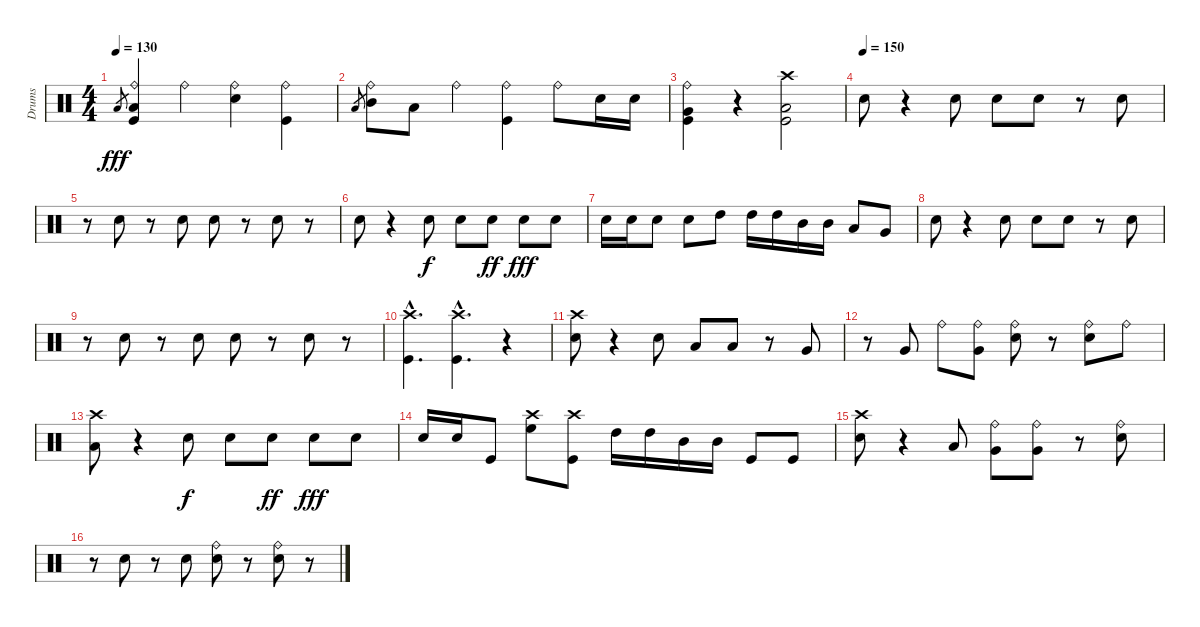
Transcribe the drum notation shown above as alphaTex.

\track ("Drums" "Drums") {instrument percussion}
\staff {score}
\articulation defaults
\ts (4 4)
\tempo 130
\clef neutral
\ks c "Low Tom (hit)".8{gr dy fff}
("Ride (bell)" "Low Tom (hit)" "Kick (hit)").4 "Ride (bell)".4 ("Ride (bell)" "Snare (hit) 2").4 ("Ride (bell)" "Kick (hit)").4 |
"Low Tom (hit)".8{gr} ("Ride (bell)" "Mid Tom (hit)").8 "Low Tom (hit)".8 "Ride (bell)".4 ("Ride (bell)" "Kick (hit)").4 "Ride (bell)".8 "Snare (hit) 2".16 "Snare (hit) 2".16 |
("Ride (bell)" "Very Low Tom (hit)" "Kick (hit)").4 r.4 ("Crash high (hit)" "Low Tom (hit)" "Kick (hit)").2 |
\tempo (150)
"Snare (hit) 2".8 r.4 "Snare (hit) 2".8 "Snare (hit) 2".8 "Snare (hit) 2".8 r.8 "Snare (hit) 2".8 |
r.8 "Snare (hit) 2".8 r.8 "Snare (hit) 2".8 "Snare (hit) 2".8 r.8 "Snare (hit) 2".8 r.8 |
"Snare (hit) 2".8 r.4 "Snare (hit) 2".8{dy f} "Snare (hit) 2".8 "Snare (hit) 2".8{dy ff} "Snare (hit) 2".8{dy fff} "Snare (hit) 2".8 |
"Snare (hit) 2".16 "Snare (hit) 2".16 "Snare (hit) 2".8 "Snare (hit) 2".8 "High Tom (hit)".8 "High Tom (hit)".16 "High Tom (hit)".16 "Mid Tom (hit)".16 "Mid Tom (hit)".16 "Low Tom (hit)".8 "Very Low Tom (hit)".8 |
"Snare (hit) 2".8 r.4 "Snare (hit) 2".8 "Snare (hit) 2".8 "Snare (hit) 2".8 r.8 "Snare (hit) 2".8 |
r.8 "Snare (hit) 2".8 r.8 "Snare (hit) 2".8 "Snare (hit) 2".8 r.8 "Snare (hit) 2".8 r.8 |
("Crash high (hit)"{hac} "Kick (hit)"{hac}).4{d} ("Crash high (hit)"{hac} "Kick (hit)"{hac}).4{d} r.4 |
("Crash high (hit)" "Snare (hit) 2").8 r.4 "Snare (hit) 2".8 "Low Tom (hit)".8 "Low Tom (hit)".8 r.8 "Very Low Tom (hit)".8 |
r.8 "Very Low Tom (hit)".8 "Ride (bell)".8 ("Ride (bell)" "Very Low Tom (hit)").8 ("Ride (bell)" "Snare (hit) 2").8 r.8 ("Ride (bell)" "Snare (hit) 2").8 "Ride (bell)".8 |
("Crash high (hit)" "Low Tom (hit)").8 r.4 "Snare (hit) 2".8{dy f} "Snare (hit) 2".8 "Snare (hit) 2".8{dy ff} "Snare (hit) 2".8{dy fff} "Snare (hit) 2".8 |
"Snare (hit) 2".16 "Snare (hit) 2".16 "Kick (hit)".8 ("Crash high (hit)" "High Floor Tom (hit)").8 ("Crash high (hit)" "Kick (hit)").8 "High Tom (hit)".16 "High Tom (hit)".16 "Mid Tom (hit)".16 "Mid Tom (hit)".16 "Kick (hit)".8 "Kick (hit)".8 |
("Crash high (hit)" "Snare (hit) 2").8 r.4 "Low Tom (hit)".8 ("Ride (bell)" "Very Low Tom (hit)").8 ("Ride (bell)" "Very Low Tom (hit)").8 r.8 ("Ride (bell)" "Snare (hit) 2").8 |
r.8 "Snare (hit) 2".8 r.8 "Snare (hit) 2".8 ("Ride (bell)" "Snare (hit) 2").8 r.8 ("Ride (bell)" "Snare (hit) 2").8 r.8
